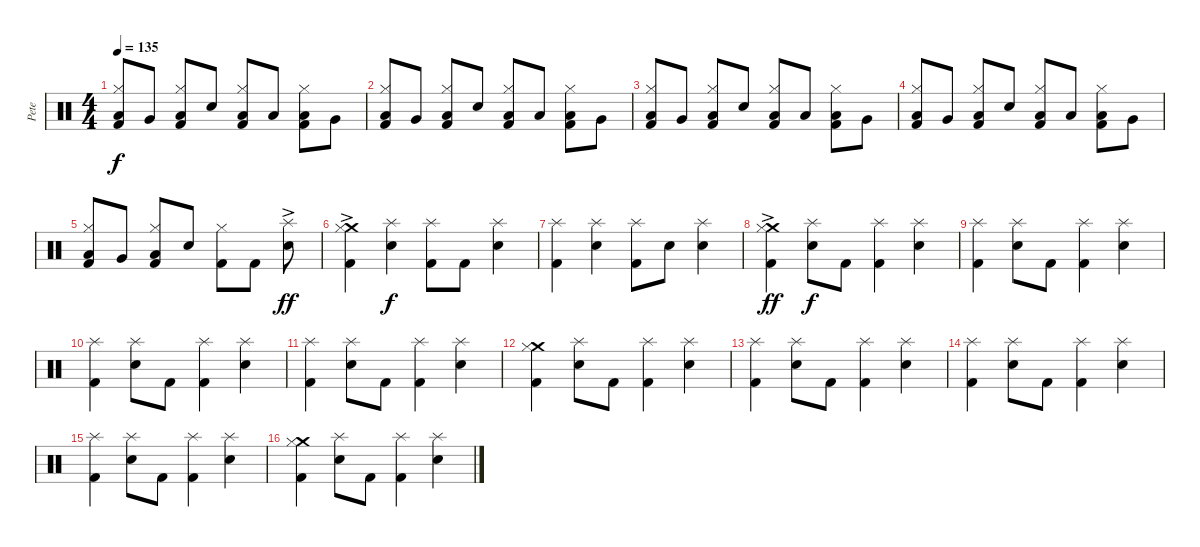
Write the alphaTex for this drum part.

\track ("Pete" "Pete") {instrument percussion}
\staff {score}
\articulation defaults
\ts (4 4)
\tempo 135
\clef neutral
\ks c
("Low Floor Tom (hit)" "Hi-Hat (closed)" "Kick (hit) 2").8{dy f} "Very Low Tom (hit)".8 ("Low Floor Tom (hit)" "Hi-Hat (closed)" "Kick (hit) 2").8 "Electric Snare (hit)".8 ("Low Floor Tom (hit)" "Hi-Hat (closed)" "Kick (hit) 2").8 "Low Floor Tom (hit)".8 ("Low Tom (hit)" "Hi-Hat (closed)" "Kick (hit) 2").8 "Very Low Tom (hit)".8 |
("Low Floor Tom (hit)" "Hi-Hat (closed)" "Kick (hit) 2").8 "Very Low Tom (hit)".8 ("Low Floor Tom (hit)" "Hi-Hat (closed)" "Kick (hit) 2").8 "Electric Snare (hit)".8 ("Low Floor Tom (hit)" "Hi-Hat (closed)" "Kick (hit) 2").8 "Low Floor Tom (hit)".8 ("Low Tom (hit)" "Hi-Hat (closed)" "Kick (hit) 2").8 "Very Low Tom (hit)".8 |
("Low Floor Tom (hit)" "Hi-Hat (closed)" "Kick (hit) 2").8 "Very Low Tom (hit)".8 ("Low Floor Tom (hit)" "Hi-Hat (closed)" "Kick (hit) 2").8 "Electric Snare (hit)".8 ("Low Floor Tom (hit)" "Hi-Hat (closed)" "Kick (hit) 2").8 "Low Floor Tom (hit)".8 ("Low Tom (hit)" "Hi-Hat (closed)" "Kick (hit) 2").8 "Very Low Tom (hit)".8 |
("Low Floor Tom (hit)" "Hi-Hat (closed)" "Kick (hit) 2").8 "Very Low Tom (hit)".8 ("Low Floor Tom (hit)" "Hi-Hat (closed)" "Kick (hit) 2").8 "Electric Snare (hit)".8 ("Low Floor Tom (hit)" "Hi-Hat (closed)" "Kick (hit) 2").8 "Low Floor Tom (hit)".8 ("Low Tom (hit)" "Hi-Hat (closed)" "Kick (hit) 2").8 "Very Low Tom (hit)".8 |
("Low Floor Tom (hit)" "Hi-Hat (closed)" "Kick (hit) 2").8 "Very Low Tom (hit)".8 ("Low Floor Tom (hit)" "Hi-Hat (closed)" "Kick (hit) 2").8 "Electric Snare (hit)".8 ("Hi-Hat (closed)" "Kick (hit) 2").8 "Kick (hit) 2".8 ("Splash (hit)" "Electric Snare (hit)"{ac}).8{dy ff} |
("Crash medium (hit)" "Hi-Hat (closed)"{ac} "Kick (hit) 2").4 ("Splash (hit)" "Electric Snare (hit)").4{dy f} ("Splash (hit)" "Kick (hit) 2").8 "Kick (hit) 2".8 ("Splash (hit)" "Electric Snare (hit)").4 |
("Splash (hit)" "Kick (hit) 2").4 ("Splash (hit)" "Electric Snare (hit)").4 ("Splash (hit)" "Kick (hit) 2").8 "Electric Snare (hit)".8 ("Splash (hit)" "Electric Snare (hit)").4 |
("Crash medium (hit)" "Hi-Hat (closed)"{ac} "Kick (hit) 2").4{dy ff} ("Splash (hit)" "Electric Snare (hit)").8{dy f} "Kick (hit) 2".8 ("Splash (hit)" "Kick (hit) 2").4 ("Splash (hit)" "Electric Snare (hit)").4 |
("Splash (hit)" "Kick (hit) 2").4 ("Splash (hit)" "Electric Snare (hit)").8 "Kick (hit) 2".8 ("Splash (hit)" "Kick (hit) 2").4 ("Splash (hit)" "Electric Snare (hit)").4 |
("Splash (hit)" "Kick (hit) 2").4 ("Splash (hit)" "Electric Snare (hit)").8 "Kick (hit) 2".8 ("Splash (hit)" "Kick (hit) 2").4 ("Splash (hit)" "Electric Snare (hit)").4 |
("Splash (hit)" "Kick (hit) 2").4 ("Splash (hit)" "Electric Snare (hit)").8 "Kick (hit) 2".8 ("Splash (hit)" "Kick (hit) 2").4 ("Splash (hit)" "Electric Snare (hit)").4 |
("Crash medium (hit)" "Hi-Hat (closed)" "Kick (hit) 2").4 ("Splash (hit)" "Electric Snare (hit)").8 "Kick (hit) 2".8 ("Splash (hit)" "Kick (hit) 2").4 ("Splash (hit)" "Electric Snare (hit)").4 |
("Splash (hit)" "Kick (hit) 2").4 ("Splash (hit)" "Electric Snare (hit)").8 "Kick (hit) 2".8 ("Splash (hit)" "Kick (hit) 2").4 ("Splash (hit)" "Electric Snare (hit)").4 |
("Splash (hit)" "Kick (hit) 2").4 ("Splash (hit)" "Electric Snare (hit)").8 "Kick (hit) 2".8 ("Splash (hit)" "Kick (hit) 2").4 ("Splash (hit)" "Electric Snare (hit)").4 |
("Splash (hit)" "Kick (hit) 2").4 ("Splash (hit)" "Electric Snare (hit)").8 "Kick (hit) 2".8 ("Splash (hit)" "Kick (hit) 2").4 ("Splash (hit)" "Electric Snare (hit)").4 |
("Crash medium (hit)" "Hi-Hat (closed)" "Kick (hit) 2").4 ("Splash (hit)" "Electric Snare (hit)").8 "Kick (hit) 2".8 ("Splash (hit)" "Kick (hit) 2").4 ("Splash (hit)" "Electric Snare (hit)").4
